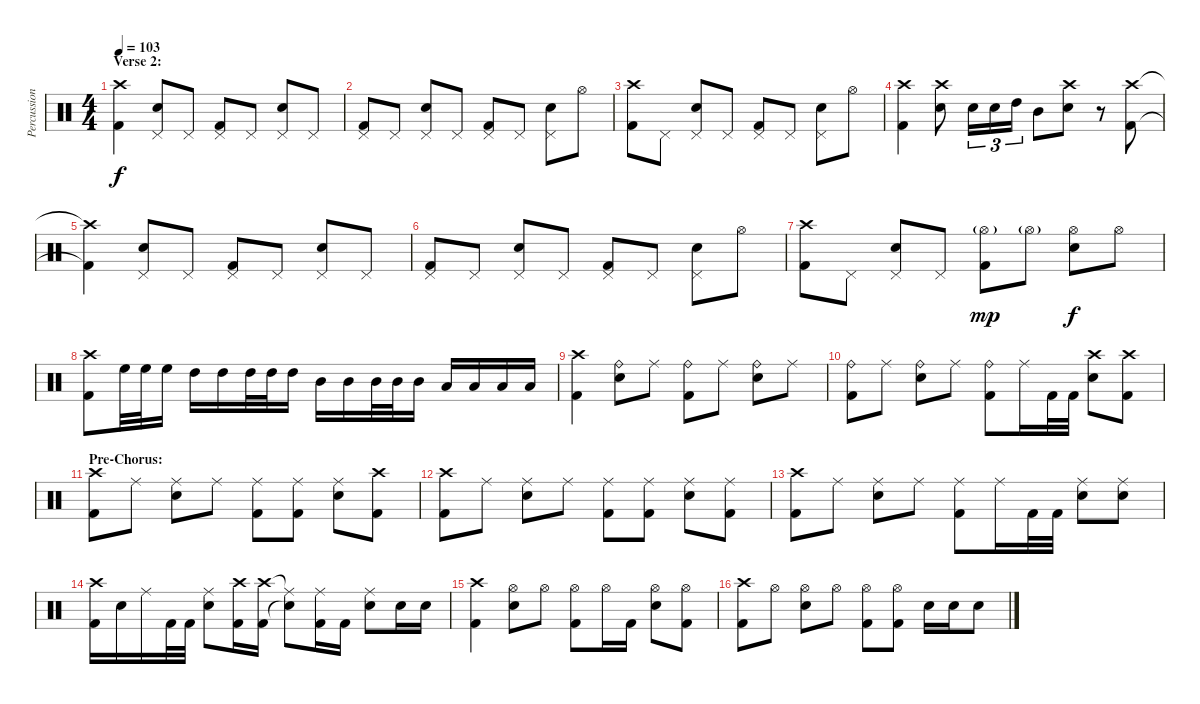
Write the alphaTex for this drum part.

\track ("Percussion" "Percussion") {instrument percussion}
\staff {score}
\articulation defaults
\ts (4 4)
\section ("" "Verse 2:")
\tempo 103
\clef neutral
\ks c
("Crash high (hit)" "Kick (hit) 2").4{dy f} ("Pedal Hi-Hat (hit)" "Snare (hit) 2").8 "Pedal Hi-Hat (hit)".8 ("Pedal Hi-Hat (hit)" "Kick (hit) 2").8 "Pedal Hi-Hat (hit)".8 ("Pedal Hi-Hat (hit)" "Snare (hit) 2").8 "Pedal Hi-Hat (hit)".8 |
("Pedal Hi-Hat (hit)" "Kick (hit) 2").8 "Pedal Hi-Hat (hit)".8 ("Pedal Hi-Hat (hit)" "Snare (hit) 2").8 "Pedal Hi-Hat (hit)".8 ("Pedal Hi-Hat (hit)" "Kick (hit) 2").8 "Pedal Hi-Hat (hit)".8 ("Pedal Hi-Hat (hit)" "Snare (hit) 2").8 "Hi-Hat (open)".8 |
("Crash high (hit)" "Kick (hit) 2").8 "Pedal Hi-Hat (hit)".8 ("Pedal Hi-Hat (hit)" "Snare (hit) 2").8 "Pedal Hi-Hat (hit)".8 ("Pedal Hi-Hat (hit)" "Kick (hit) 2").8 "Pedal Hi-Hat (hit)".8 ("Pedal Hi-Hat (hit)" "Snare (hit) 2").8 "Hi-Hat (open)".8 |
("Crash high (hit)" "Kick (hit) 2").4 ("Crash high (hit)" "Snare (hit) 2").8 "Snare (hit) 2".16{tu (3 2)} "Snare (hit) 2".16{tu (3 2)} "High Tom (hit)".16{tu (3 2)} "Mid Tom (hit)".8 ("Crash high (hit)" "Snare (hit) 2").8 r.8 ("Crash high (hit)" "Kick (hit) 2").8 |
("Crash high (hit)"{t} "Kick (hit) 2"{t}).4 ("Pedal Hi-Hat (hit)" "Snare (hit) 2").8 "Pedal Hi-Hat (hit)".8 ("Pedal Hi-Hat (hit)" "Kick (hit) 2").8 "Pedal Hi-Hat (hit)".8 ("Pedal Hi-Hat (hit)" "Snare (hit) 2").8 "Pedal Hi-Hat (hit)".8 |
("Pedal Hi-Hat (hit)" "Kick (hit) 2").8 "Pedal Hi-Hat (hit)".8 ("Pedal Hi-Hat (hit)" "Snare (hit) 2").8 "Pedal Hi-Hat (hit)".8 ("Pedal Hi-Hat (hit)" "Kick (hit) 2").8 "Pedal Hi-Hat (hit)".8 ("Pedal Hi-Hat (hit)" "Snare (hit) 2").8 "Hi-Hat (open)".8 |
("Crash high (hit)" "Kick (hit) 2").8 "Pedal Hi-Hat (hit)".8 ("Pedal Hi-Hat (hit)" "Snare (hit) 2").8 "Pedal Hi-Hat (hit)".8 ("Hi-Hat (open)"{g} "Kick (hit) 2").8{dy mp} "Hi-Hat (open)"{g}.8 ("Hi-Hat (open)" "Snare (hit) 2").8{dy f} "Hi-Hat (open)".8 |
("Crash high (hit)" "Kick (hit) 2").8 "High Floor Tom (hit)".32 "High Floor Tom (hit)".32 "High Floor Tom (hit)".16 "High Tom (hit)".16 "High Tom (hit)".16 "High Tom (hit)".32 "High Tom (hit)".32 "High Tom (hit)".16 "Mid Tom (hit)".16 "Mid Tom (hit)".16 "Mid Tom (hit)".32 "Mid Tom (hit)".32 "Mid Tom (hit)".16 "Low Tom (hit)".16 "Low Tom (hit)".16 "Low Tom (hit)".16 "Low Tom (hit)".16 |
("Crash high (hit)" "Kick (hit) 2").4 ("Ride (bell)" "Snare (hit) 2").8 "Ride (middle)".8 ("Ride (bell)" "Kick (hit) 2").8 "Ride (middle)".8 ("Ride (bell)" "Snare (hit) 2").8 "Ride (middle)".8 |
("Ride (bell)" "Kick (hit) 2").8 "Ride (middle)".8 ("Ride (bell)" "Snare (hit) 2").8 "Ride (middle)".8 ("Ride (bell)" "Kick (hit) 2").8 "Ride (middle)".16 "Kick (hit) 2".32 "Kick (hit) 2".32 ("Crash high (hit)" "Snare (hit) 2").8 ("Crash high (hit)" "Kick (hit) 2").8 |
\section ("" "Pre-Chorus:")
("Crash high (hit)" "Kick (hit) 2").8 "Ride (middle)".8 ("Ride (middle)" "Snare (hit) 2").8 "Ride (middle)".8 ("Ride (middle)" "Kick (hit) 2").8 ("Ride (middle)" "Kick (hit) 2").8 ("Ride (middle)" "Snare (hit) 2").8 ("Crash high (hit)" "Kick (hit) 2").8 |
("Crash high (hit)" "Kick (hit) 2").8 "Ride (middle)".8 ("Ride (middle)" "Snare (hit) 2").8 "Ride (middle)".8 ("Ride (middle)" "Kick (hit) 2").8 ("Ride (middle)" "Kick (hit) 2").8 ("Ride (middle)" "Snare (hit) 2").8 ("Ride (middle)" "Kick (hit) 2").8 |
("Crash high (hit)" "Kick (hit) 2").8 "Ride (middle)".8 ("Ride (middle)" "Snare (hit) 2").8 "Ride (middle)".8 ("Ride (middle)" "Kick (hit) 2").8 "Ride (middle)".16 "Kick (hit) 2".32 "Kick (hit) 2".32 ("Ride (middle)" "Snare (hit) 2").8 ("Ride (middle)" "Snare (hit) 2").8 |
("Crash high (hit)" "Kick (hit) 2").16 "Snare (hit) 2".16 "Ride (middle)".16 "Kick (hit) 2".32 "Kick (hit) 2".32 ("Ride (middle)" "Snare (hit) 2").8 ("Crash high (hit)" "Kick (hit) 2").16 ("Crash high (hit)" "Kick (hit) 2").16 ("Ride (middle)"{t} "Snare (hit)"{t}).8 ("Ride (middle)" "Kick (hit) 2").16 "Kick (hit) 2".16 ("Ride (middle)" "Snare (hit) 2").8 "Snare (hit) 2".16 "Snare (hit) 2".16 |
("Crash high (hit)" "Kick (hit) 2").4 ("Hi-Hat (open)" "Snare (hit) 2").8 "Hi-Hat (open)".8 ("Hi-Hat (open)" "Kick (hit) 2").8 "Hi-Hat (open)".16 "Kick (hit) 2".16 ("Hi-Hat (open)" "Snare (hit) 2").8 ("Hi-Hat (open)" "Kick (hit) 2").8 |
("Crash high (hit)" "Kick (hit) 2").8 "Hi-Hat (open)".8 ("Hi-Hat (open)" "Snare (hit) 2").8 "Hi-Hat (open)".8 ("Hi-Hat (open)" "Kick (hit) 2").8 ("Hi-Hat (open)" "Kick (hit) 2").8 "Snare (hit) 2".16 "Snare (hit) 2".16 "Snare (hit) 2".8
